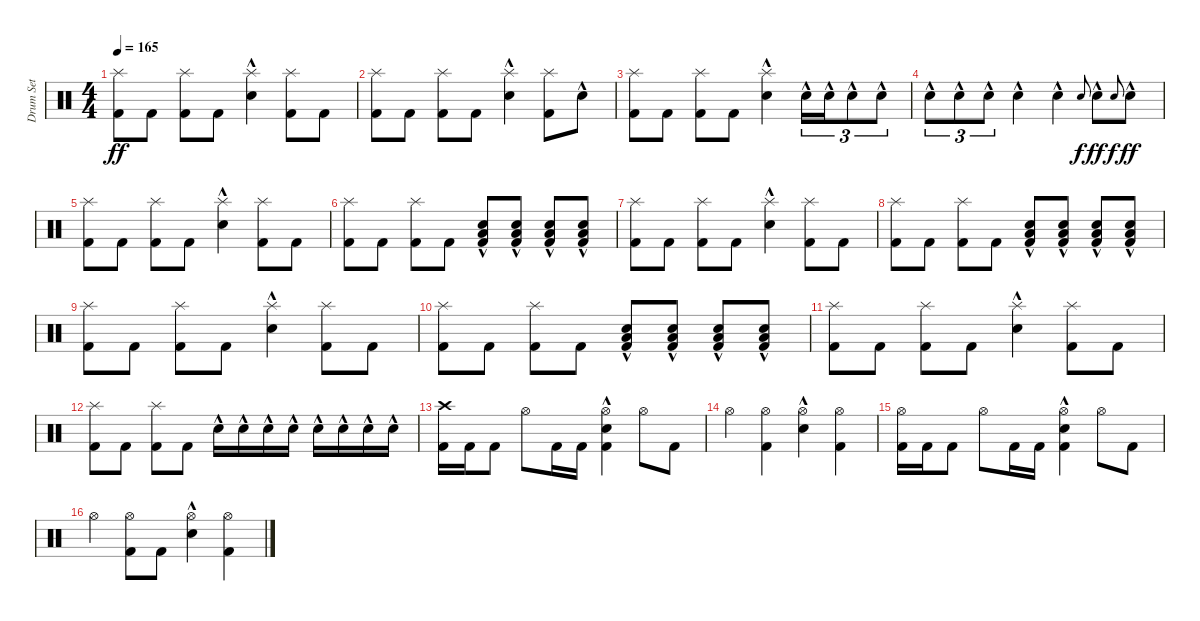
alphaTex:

\track ("Drum Set" "Drum Set") {instrument percussion}
\staff {score}
\articulation defaults
\ts (4 4)
\tempo 165
\clef neutral
\ks c
("Splash (hit)" "Kick (hit) 2").8{dy ff} "Kick (hit) 2".8 ("Splash (hit)" "Kick (hit) 2").8 "Kick (hit) 2".8 ("Splash (hit)" "Snare (hit) 2"{hac}).4 ("Splash (hit)" "Kick (hit) 2").8 "Kick (hit) 2".8 |
("Splash (hit)" "Kick (hit) 2").8 "Kick (hit) 2".8 ("Splash (hit)" "Kick (hit) 2").8 "Kick (hit) 2".8 ("Splash (hit)" "Snare (hit) 2"{hac}).4 ("Splash (hit)" "Kick (hit) 2").8 "Snare (hit) 2"{hac}.8 |
("Splash (hit)" "Kick (hit) 2").8 "Kick (hit) 2".8 ("Splash (hit)" "Kick (hit) 2").8 "Kick (hit) 2".8 ("Splash (hit)" "Snare (hit) 2"{hac}).4 "Snare (hit) 2"{hac}.16{tu (3 2)} "Snare (hit) 2"{hac}.16{tu (3 2)} "Snare (hit) 2"{hac}.8{tu (3 2)} "Snare (hit) 2"{hac}.8{tu (3 2)} |
"Snare (hit) 2"{hac}.8{tu (3 2)} "Snare (hit) 2"{hac}.8{tu (3 2)} "Snare (hit) 2"{hac}.8{tu (3 2)} "Snare (hit) 2"{hac}.4 "Snare (hit) 2"{hac}.4 "Snare (hit) 2".8{gr onbeat dy f} "Snare (hit) 2"{hac}.8{dy ff} "Snare (hit) 2".8{gr onbeat dy f} "Snare (hit) 2"{hac}.8{dy ff} |
("Splash (hit)" "Kick (hit) 2").8 "Kick (hit) 2".8 ("Splash (hit)" "Kick (hit) 2").8 "Kick (hit) 2".8 ("Splash (hit)" "Snare (hit) 2"{hac}).4 ("Splash (hit)" "Kick (hit) 2").8 "Kick (hit) 2".8 |
("Splash (hit)" "Kick (hit) 2").8 "Kick (hit) 2".8 ("Splash (hit)" "Kick (hit) 2").8 "Kick (hit) 2".8 ("Low Floor Tom (hit)"{hac} "Snare (hit) 2"{hac} "Kick (hit) 2").8 ("Low Floor Tom (hit)"{hac} "Snare (hit) 2"{hac} "Kick (hit) 2").8 ("Low Floor Tom (hit)"{hac} "Snare (hit) 2"{hac} "Kick (hit) 2").8 ("Low Floor Tom (hit)"{hac} "Snare (hit) 2"{hac} "Kick (hit) 2").8 |
("Splash (hit)" "Kick (hit) 2").8 "Kick (hit) 2".8 ("Splash (hit)" "Kick (hit) 2").8 "Kick (hit) 2".8 ("Splash (hit)" "Snare (hit) 2"{hac}).4 ("Splash (hit)" "Kick (hit) 2").8 "Kick (hit) 2".8 |
("Splash (hit)" "Kick (hit) 2").8 "Kick (hit) 2".8 ("Splash (hit)" "Kick (hit) 2").8 "Kick (hit) 2".8 ("Low Floor Tom (hit)"{hac} "Snare (hit) 2"{hac} "Kick (hit) 2").8 ("Low Floor Tom (hit)"{hac} "Snare (hit) 2"{hac} "Kick (hit) 2").8 ("Low Floor Tom (hit)"{hac} "Snare (hit) 2"{hac} "Kick (hit) 2").8 ("Low Floor Tom (hit)"{hac} "Snare (hit) 2"{hac} "Kick (hit) 2").8 |
("Splash (hit)" "Kick (hit) 2").8 "Kick (hit) 2".8 ("Splash (hit)" "Kick (hit) 2").8 "Kick (hit) 2".8 ("Splash (hit)" "Snare (hit) 2"{hac}).4 ("Splash (hit)" "Kick (hit) 2").8 "Kick (hit) 2".8 |
("Splash (hit)" "Kick (hit) 2").8 "Kick (hit) 2".8 ("Splash (hit)" "Kick (hit) 2").8 "Kick (hit) 2".8 ("Low Floor Tom (hit)"{hac} "Snare (hit) 2"{hac} "Kick (hit) 2").8 ("Low Floor Tom (hit)"{hac} "Snare (hit) 2"{hac} "Kick (hit) 2").8 ("Low Floor Tom (hit)"{hac} "Snare (hit) 2"{hac} "Kick (hit) 2").8 ("Low Floor Tom (hit)"{hac} "Snare (hit) 2"{hac} "Kick (hit) 2").8 |
("Splash (hit)" "Kick (hit) 2").8 "Kick (hit) 2".8 ("Splash (hit)" "Kick (hit) 2").8 "Kick (hit) 2".8 ("Splash (hit)" "Snare (hit) 2"{hac}).4 ("Splash (hit)" "Kick (hit) 2").8 "Kick (hit) 2".8 |
("Splash (hit)" "Kick (hit) 2").8 "Kick (hit) 2".8 ("Splash (hit)" "Kick (hit) 2").8 "Kick (hit) 2".8 "Snare (hit) 2"{hac}.16 "Snare (hit) 2"{hac}.16 "Snare (hit) 2"{hac}.16 "Snare (hit) 2"{hac}.16 "Snare (hit) 2"{hac}.16 "Snare (hit) 2"{hac}.16 "Snare (hit) 2"{hac}.16 "Snare (hit) 2"{hac}.16 |
("Crash high (hit)" "Kick (hit) 2").16 "Kick (hit) 2".16 "Kick (hit) 2".8 "Hi-Hat (open)".8 "Kick (hit) 2".16 "Kick (hit) 2".16 ("Hi-Hat (open)" "Snare (hit) 2"{hac} "Kick (hit) 2").4 "Hi-Hat (open)".8 "Kick (hit) 2".8 |
"Hi-Hat (open)".4 ("Hi-Hat (open)" "Kick (hit) 2").4 ("Hi-Hat (open)" "Snare (hit) 2"{hac}).4 ("Hi-Hat (open)" "Kick (hit) 2").4 |
("Hi-Hat (open)" "Kick (hit) 2").16 "Kick (hit) 2".16 "Kick (hit) 2".8 "Hi-Hat (open)".8 "Kick (hit) 2".16 "Kick (hit) 2".16 ("Hi-Hat (open)" "Snare (hit) 2"{hac} "Kick (hit) 2").4 "Hi-Hat (open)".8 "Kick (hit) 2".8 |
"Hi-Hat (open)".4 ("Hi-Hat (open)" "Kick (hit) 2").8 "Kick (hit) 2".8 ("Hi-Hat (open)" "Snare (hit) 2"{hac}).4 ("Hi-Hat (open)" "Kick (hit) 2").4
